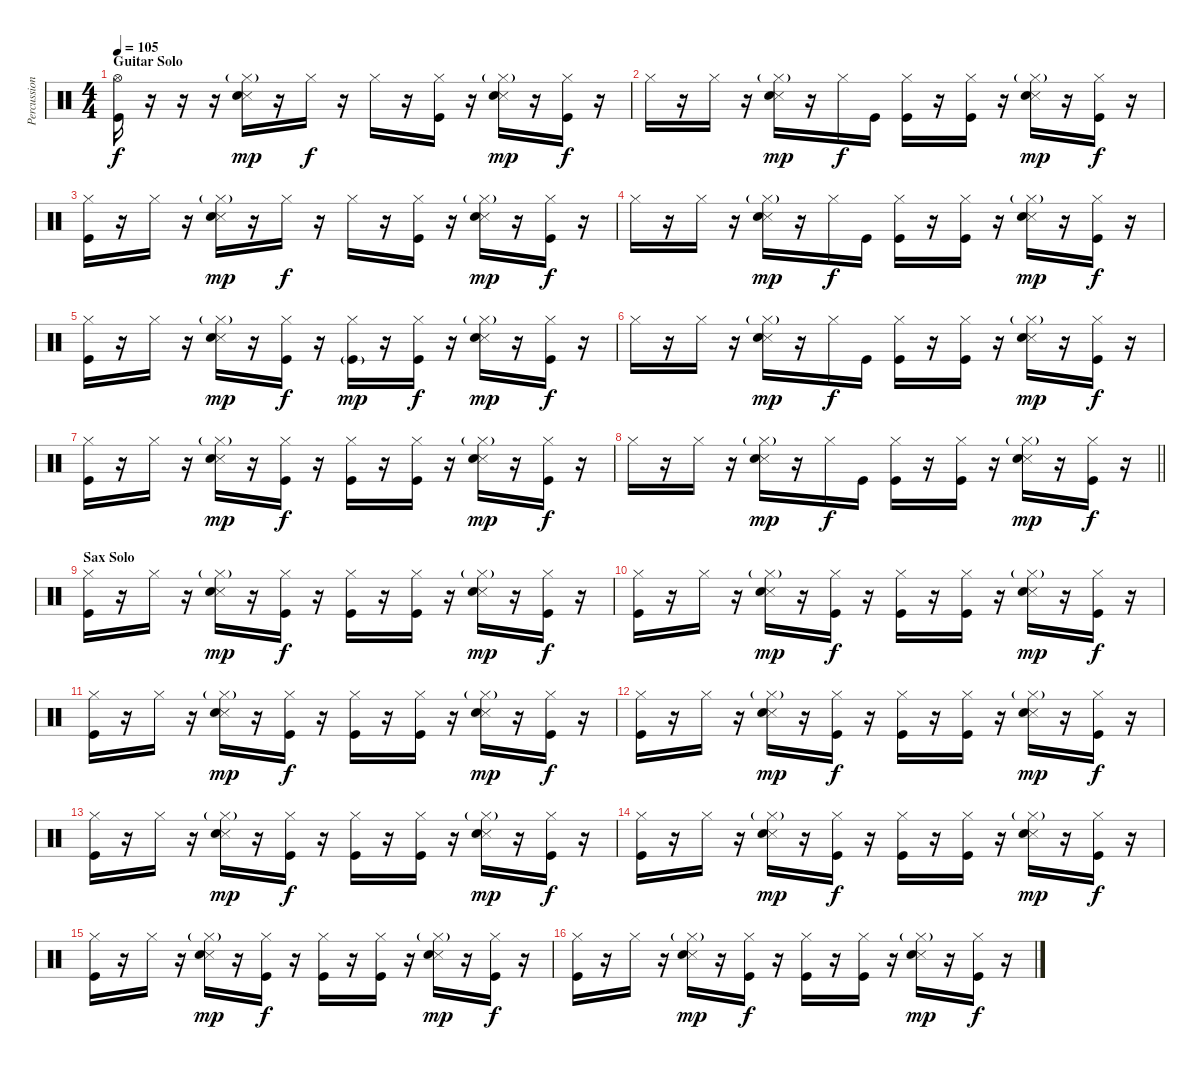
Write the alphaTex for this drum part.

\track ("Percussion" "Percussion") {instrument percussion}
\staff {score}
\articulation defaults
\ts (4 4)
\section ("" "Guitar Solo")
\tempo 105
\clef neutral
\ks c
("Hi-Hat (open)" "Kick (hit)").16{dy f} r.16 r.16 r.16 ("Hi-Hat (closed)"{g} "Snare (side stick) 3" "Snare (hit) 2").16{dy mp} r.16 "Hi-Hat (closed)".16{dy f} r.16 "Hi-Hat (closed)".16 r.16 ("Hi-Hat (closed)" "Kick (hit)").16 r.16 ("Hi-Hat (closed)"{g} "Snare (side stick) 3" "Snare (hit) 2").16{dy mp} r.16 ("Hi-Hat (closed)" "Kick (hit)").16{dy f} r.16 |
"Hi-Hat (closed)".16 r.16 "Hi-Hat (closed)".16 r.16 ("Hi-Hat (closed)"{g} "Snare (side stick) 3" "Snare (hit) 2").16{dy mp} r.16 "Hi-Hat (closed)".16{dy f} "Kick (hit)".16 ("Hi-Hat (closed)" "Kick (hit)").16 r.16 ("Hi-Hat (closed)" "Kick (hit)").16 r.16 ("Hi-Hat (closed)"{g} "Snare (side stick) 3" "Snare (hit) 2").16{dy mp} r.16 ("Hi-Hat (closed)" "Kick (hit)").16{dy f} r.16 |
("Hi-Hat (closed)" "Kick (hit)").16 r.16 "Hi-Hat (closed)".16 r.16 ("Hi-Hat (closed)"{g} "Snare (side stick) 3" "Snare (hit) 2").16{dy mp} r.16 "Hi-Hat (closed)".16{dy f} r.16 "Hi-Hat (closed)".16 r.16 ("Hi-Hat (closed)" "Kick (hit)").16 r.16 ("Hi-Hat (closed)"{g} "Snare (side stick) 3" "Snare (hit) 2").16{dy mp} r.16 ("Hi-Hat (closed)" "Kick (hit)").16{dy f} r.16 |
"Hi-Hat (closed)".16 r.16 "Hi-Hat (closed)".16 r.16 ("Hi-Hat (closed)"{g} "Snare (side stick) 3" "Snare (hit) 2").16{dy mp} r.16 "Hi-Hat (closed)".16{dy f} "Kick (hit)".16 ("Hi-Hat (closed)" "Kick (hit)").16 r.16 ("Hi-Hat (closed)" "Kick (hit)").16 r.16 ("Hi-Hat (closed)"{g} "Snare (side stick) 3" "Snare (hit) 2").16{dy mp} r.16 ("Hi-Hat (closed)" "Kick (hit)").16{dy f} r.16 |
("Hi-Hat (closed)" "Kick (hit)").16 r.16 "Hi-Hat (closed)".16 r.16 ("Hi-Hat (closed)"{g} "Snare (side stick) 3" "Snare (hit) 2").16{dy mp} r.16 ("Hi-Hat (closed)" "Kick (hit)").16{dy f} r.16 ("Hi-Hat (closed)" "Kick (hit)"{g}).16{dy mp} r.16 ("Hi-Hat (closed)" "Kick (hit)").16{dy f} r.16 ("Hi-Hat (closed)"{g} "Snare (side stick) 3" "Snare (hit) 2").16{dy mp} r.16 ("Hi-Hat (closed)" "Kick (hit)").16{dy f} r.16 |
"Hi-Hat (closed)".16 r.16 "Hi-Hat (closed)".16 r.16 ("Hi-Hat (closed)"{g} "Snare (side stick) 3" "Snare (hit) 2").16{dy mp} r.16 "Hi-Hat (closed)".16{dy f} "Kick (hit)".16 ("Hi-Hat (closed)" "Kick (hit)").16 r.16 ("Hi-Hat (closed)" "Kick (hit)").16 r.16 ("Hi-Hat (closed)"{g} "Snare (side stick) 3" "Snare (hit) 2").16{dy mp} r.16 ("Hi-Hat (closed)" "Kick (hit)").16{dy f} r.16 |
("Hi-Hat (closed)" "Kick (hit)").16 r.16 "Hi-Hat (closed)".16 r.16 ("Hi-Hat (closed)"{g} "Snare (side stick) 3" "Snare (hit) 2").16{dy mp} r.16 ("Hi-Hat (closed)" "Kick (hit)").16{dy f} r.16 ("Hi-Hat (closed)" "Kick (hit)").16 r.16 ("Hi-Hat (closed)" "Kick (hit)").16 r.16 ("Hi-Hat (closed)"{g} "Snare (side stick) 3" "Snare (hit) 2").16{dy mp} r.16 ("Hi-Hat (closed)" "Kick (hit)").16{dy f} r.16 |
\barLineRight lightlight "Hi-Hat (closed)".16
r.16 "Hi-Hat (closed)".16 r.16 ("Hi-Hat (closed)"{g} "Snare (side stick) 3" "Snare (hit) 2").16{dy mp} r.16 "Hi-Hat (closed)".16{dy f} "Kick (hit)".16 ("Hi-Hat (closed)" "Kick (hit)").16 r.16 ("Hi-Hat (closed)" "Kick (hit)").16 r.16 ("Hi-Hat (closed)"{g} "Snare (side stick) 3" "Snare (hit) 2").16{dy mp} r.16 ("Hi-Hat (closed)" "Kick (hit)").16{dy f} r.16 |
\section ("" "Sax Solo")
("Hi-Hat (closed)" "Kick (hit)").16 r.16 "Hi-Hat (closed)".16 r.16 ("Hi-Hat (closed)"{g} "Snare (side stick) 3" "Snare (hit) 2").16{dy mp} r.16 ("Hi-Hat (closed)" "Kick (hit)").16{dy f} r.16 ("Hi-Hat (closed)" "Kick (hit)").16 r.16 ("Hi-Hat (closed)" "Kick (hit)").16 r.16 ("Hi-Hat (closed)"{g} "Snare (side stick) 3" "Snare (hit) 2").16{dy mp} r.16 ("Hi-Hat (closed)" "Kick (hit)").16{dy f} r.16 |
("Hi-Hat (closed)" "Kick (hit)").16 r.16 "Hi-Hat (closed)".16 r.16 ("Hi-Hat (closed)"{g} "Snare (side stick) 3" "Snare (hit) 2").16{dy mp} r.16 ("Hi-Hat (closed)" "Kick (hit)").16{dy f} r.16 ("Hi-Hat (closed)" "Kick (hit)").16 r.16 ("Hi-Hat (closed)" "Kick (hit)").16 r.16 ("Hi-Hat (closed)"{g} "Snare (side stick) 3" "Snare (hit) 2").16{dy mp} r.16 ("Hi-Hat (closed)" "Kick (hit)").16{dy f} r.16 |
("Hi-Hat (closed)" "Kick (hit)").16 r.16 "Hi-Hat (closed)".16 r.16 ("Hi-Hat (closed)"{g} "Snare (side stick) 3" "Snare (hit) 2").16{dy mp} r.16 ("Hi-Hat (closed)" "Kick (hit)").16{dy f} r.16 ("Hi-Hat (closed)" "Kick (hit)").16 r.16 ("Hi-Hat (closed)" "Kick (hit)").16 r.16 ("Hi-Hat (closed)"{g} "Snare (side stick) 3" "Snare (hit) 2").16{dy mp} r.16 ("Hi-Hat (closed)" "Kick (hit)").16{dy f} r.16 |
("Hi-Hat (closed)" "Kick (hit)").16 r.16 "Hi-Hat (closed)".16 r.16 ("Hi-Hat (closed)"{g} "Snare (side stick) 3" "Snare (hit) 2").16{dy mp} r.16 ("Hi-Hat (closed)" "Kick (hit)").16{dy f} r.16 ("Hi-Hat (closed)" "Kick (hit)").16 r.16 ("Hi-Hat (closed)" "Kick (hit)").16 r.16 ("Hi-Hat (closed)"{g} "Snare (side stick) 3" "Snare (hit) 2").16{dy mp} r.16 ("Hi-Hat (closed)" "Kick (hit)").16{dy f} r.16 |
("Hi-Hat (closed)" "Kick (hit)").16 r.16 "Hi-Hat (closed)".16 r.16 ("Hi-Hat (closed)"{g} "Snare (side stick) 3" "Snare (hit) 2").16{dy mp} r.16 ("Hi-Hat (closed)" "Kick (hit)").16{dy f} r.16 ("Hi-Hat (closed)" "Kick (hit)").16 r.16 ("Hi-Hat (closed)" "Kick (hit)").16 r.16 ("Hi-Hat (closed)"{g} "Snare (side stick) 3" "Snare (hit) 2").16{dy mp} r.16 ("Hi-Hat (closed)" "Kick (hit)").16{dy f} r.16 |
("Hi-Hat (closed)" "Kick (hit)").16 r.16 "Hi-Hat (closed)".16 r.16 ("Hi-Hat (closed)"{g} "Snare (side stick) 3" "Snare (hit) 2").16{dy mp} r.16 ("Hi-Hat (closed)" "Kick (hit)").16{dy f} r.16 ("Hi-Hat (closed)" "Kick (hit)").16 r.16 ("Hi-Hat (closed)" "Kick (hit)").16 r.16 ("Hi-Hat (closed)"{g} "Snare (side stick) 3" "Snare (hit) 2").16{dy mp} r.16 ("Hi-Hat (closed)" "Kick (hit)").16{dy f} r.16 |
("Hi-Hat (closed)" "Kick (hit)").16 r.16 "Hi-Hat (closed)".16 r.16 ("Hi-Hat (closed)"{g} "Snare (side stick) 3" "Snare (hit) 2").16{dy mp} r.16 ("Hi-Hat (closed)" "Kick (hit)").16{dy f} r.16 ("Hi-Hat (closed)" "Kick (hit)").16 r.16 ("Hi-Hat (closed)" "Kick (hit)").16 r.16 ("Hi-Hat (closed)"{g} "Snare (side stick) 3" "Snare (hit) 2").16{dy mp} r.16 ("Hi-Hat (closed)" "Kick (hit)").16{dy f} r.16 |
("Hi-Hat (closed)" "Kick (hit)").16 r.16 "Hi-Hat (closed)".16 r.16 ("Hi-Hat (closed)"{g} "Snare (side stick) 3" "Snare (hit) 2").16{dy mp} r.16 ("Hi-Hat (closed)" "Kick (hit)").16{dy f} r.16 ("Hi-Hat (closed)" "Kick (hit)").16 r.16 ("Hi-Hat (closed)" "Kick (hit)").16 r.16 ("Hi-Hat (closed)"{g} "Snare (side stick) 3" "Snare (hit) 2").16{dy mp} r.16 ("Hi-Hat (closed)" "Kick (hit)").16{dy f} r.16
